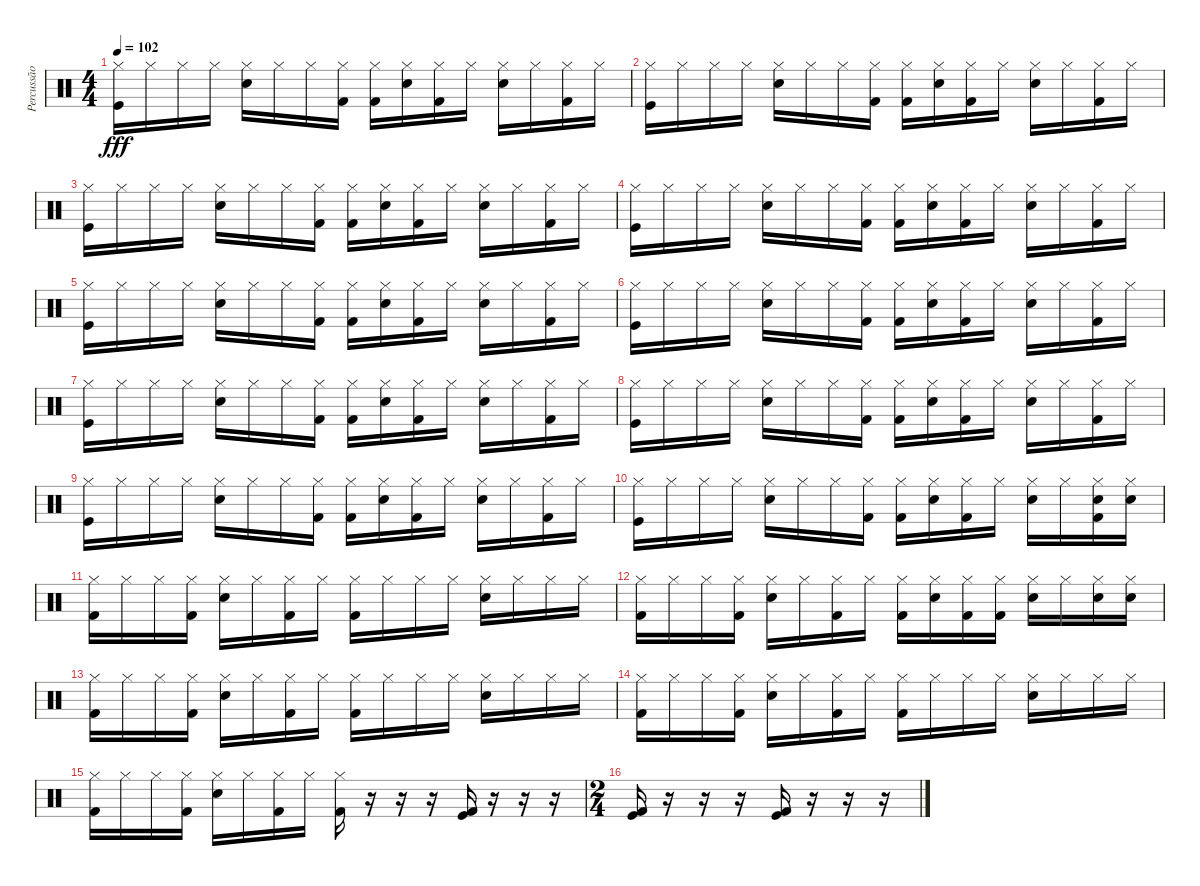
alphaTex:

\track ("Percussão" "Percussão") {instrument percussion}
\staff {score}
\articulation defaults
\ts (4 4)
\tempo 102
\clef neutral
\ks c
("Hi-Hat (closed)" "Kick (hit)").16{dy fff} "Hi-Hat (closed)".16 "Hi-Hat (closed)".16 "Hi-Hat (closed)".16 ("Hi-Hat (closed)" "Snare (hit) 2").16 "Hi-Hat (closed)".16 "Hi-Hat (closed)".16 ("Hi-Hat (closed)" "Kick (hit) 2").16 ("Hi-Hat (closed)" "Kick (hit) 2").16 ("Hi-Hat (closed)" "Snare (hit) 2").16 ("Hi-Hat (closed)" "Kick (hit) 2").16 "Hi-Hat (closed)".16 ("Hi-Hat (closed)" "Snare (hit) 2").16 "Hi-Hat (closed)".16 ("Hi-Hat (closed)" "Kick (hit) 2").16 "Hi-Hat (closed)".16 |
("Hi-Hat (closed)" "Kick (hit)").16 "Hi-Hat (closed)".16 "Hi-Hat (closed)".16 "Hi-Hat (closed)".16 ("Hi-Hat (closed)" "Snare (hit) 2").16 "Hi-Hat (closed)".16 "Hi-Hat (closed)".16 ("Hi-Hat (closed)" "Kick (hit) 2").16 ("Hi-Hat (closed)" "Kick (hit) 2").16 ("Hi-Hat (closed)" "Snare (hit) 2").16 ("Hi-Hat (closed)" "Kick (hit) 2").16 "Hi-Hat (closed)".16 ("Hi-Hat (closed)" "Snare (hit) 2").16 "Hi-Hat (closed)".16 ("Hi-Hat (closed)" "Kick (hit) 2").16 "Hi-Hat (closed)".16 |
("Hi-Hat (closed)" "Kick (hit)").16 "Hi-Hat (closed)".16 "Hi-Hat (closed)".16 "Hi-Hat (closed)".16 ("Hi-Hat (closed)" "Snare (hit) 2").16 "Hi-Hat (closed)".16 "Hi-Hat (closed)".16 ("Hi-Hat (closed)" "Kick (hit) 2").16 ("Hi-Hat (closed)" "Kick (hit) 2").16 ("Hi-Hat (closed)" "Snare (hit) 2").16 ("Hi-Hat (closed)" "Kick (hit) 2").16 "Hi-Hat (closed)".16 ("Hi-Hat (closed)" "Snare (hit) 2").16 "Hi-Hat (closed)".16 ("Hi-Hat (closed)" "Kick (hit) 2").16 "Hi-Hat (closed)".16 |
("Hi-Hat (closed)" "Kick (hit)").16 "Hi-Hat (closed)".16 "Hi-Hat (closed)".16 "Hi-Hat (closed)".16 ("Hi-Hat (closed)" "Snare (hit) 2").16 "Hi-Hat (closed)".16 "Hi-Hat (closed)".16 ("Hi-Hat (closed)" "Kick (hit) 2").16 ("Hi-Hat (closed)" "Kick (hit) 2").16 ("Hi-Hat (closed)" "Snare (hit) 2").16 ("Hi-Hat (closed)" "Kick (hit) 2").16 "Hi-Hat (closed)".16 ("Hi-Hat (closed)" "Snare (hit) 2").16 "Hi-Hat (closed)".16 ("Hi-Hat (closed)" "Kick (hit) 2").16 "Hi-Hat (closed)".16 |
("Hi-Hat (closed)" "Kick (hit)").16 "Hi-Hat (closed)".16 "Hi-Hat (closed)".16 "Hi-Hat (closed)".16 ("Hi-Hat (closed)" "Snare (hit) 2").16 "Hi-Hat (closed)".16 "Hi-Hat (closed)".16 ("Hi-Hat (closed)" "Kick (hit) 2").16 ("Hi-Hat (closed)" "Kick (hit) 2").16 ("Hi-Hat (closed)" "Snare (hit) 2").16 ("Hi-Hat (closed)" "Kick (hit) 2").16 "Hi-Hat (closed)".16 ("Hi-Hat (closed)" "Snare (hit) 2").16 "Hi-Hat (closed)".16 ("Hi-Hat (closed)" "Kick (hit) 2").16 "Hi-Hat (closed)".16 |
("Hi-Hat (closed)" "Kick (hit)").16 "Hi-Hat (closed)".16 "Hi-Hat (closed)".16 "Hi-Hat (closed)".16 ("Hi-Hat (closed)" "Snare (hit) 2").16 "Hi-Hat (closed)".16 "Hi-Hat (closed)".16 ("Hi-Hat (closed)" "Kick (hit) 2").16 ("Hi-Hat (closed)" "Kick (hit) 2").16 ("Hi-Hat (closed)" "Snare (hit) 2").16 ("Hi-Hat (closed)" "Kick (hit) 2").16 "Hi-Hat (closed)".16 ("Hi-Hat (closed)" "Snare (hit) 2").16 "Hi-Hat (closed)".16 ("Hi-Hat (closed)" "Kick (hit) 2").16 "Hi-Hat (closed)".16 |
("Hi-Hat (closed)" "Kick (hit)").16 "Hi-Hat (closed)".16 "Hi-Hat (closed)".16 "Hi-Hat (closed)".16 ("Hi-Hat (closed)" "Snare (hit) 2").16 "Hi-Hat (closed)".16 "Hi-Hat (closed)".16 ("Hi-Hat (closed)" "Kick (hit) 2").16 ("Hi-Hat (closed)" "Kick (hit) 2").16 ("Hi-Hat (closed)" "Snare (hit) 2").16 ("Hi-Hat (closed)" "Kick (hit) 2").16 "Hi-Hat (closed)".16 ("Hi-Hat (closed)" "Snare (hit) 2").16 "Hi-Hat (closed)".16 ("Hi-Hat (closed)" "Kick (hit) 2").16 "Hi-Hat (closed)".16 |
("Hi-Hat (closed)" "Kick (hit)").16 "Hi-Hat (closed)".16 "Hi-Hat (closed)".16 "Hi-Hat (closed)".16 ("Hi-Hat (closed)" "Snare (hit) 2").16 "Hi-Hat (closed)".16 "Hi-Hat (closed)".16 ("Hi-Hat (closed)" "Kick (hit) 2").16 ("Hi-Hat (closed)" "Kick (hit) 2").16 ("Hi-Hat (closed)" "Snare (hit) 2").16 ("Hi-Hat (closed)" "Kick (hit) 2").16 "Hi-Hat (closed)".16 ("Hi-Hat (closed)" "Snare (hit) 2").16 "Hi-Hat (closed)".16 ("Hi-Hat (closed)" "Kick (hit) 2").16 "Hi-Hat (closed)".16 |
("Hi-Hat (closed)" "Kick (hit)").16 "Hi-Hat (closed)".16 "Hi-Hat (closed)".16 "Hi-Hat (closed)".16 ("Hi-Hat (closed)" "Snare (hit) 2").16 "Hi-Hat (closed)".16 "Hi-Hat (closed)".16 ("Hi-Hat (closed)" "Kick (hit) 2").16 ("Hi-Hat (closed)" "Kick (hit) 2").16 ("Hi-Hat (closed)" "Snare (hit) 2").16 ("Hi-Hat (closed)" "Kick (hit) 2").16 "Hi-Hat (closed)".16 ("Hi-Hat (closed)" "Snare (hit) 2").16 "Hi-Hat (closed)".16 ("Hi-Hat (closed)" "Kick (hit) 2").16 "Hi-Hat (closed)".16 |
("Hi-Hat (closed)" "Kick (hit)").16 "Hi-Hat (closed)".16 "Hi-Hat (closed)".16 "Hi-Hat (closed)".16 ("Hi-Hat (closed)" "Snare (hit) 2").16 "Hi-Hat (closed)".16 "Hi-Hat (closed)".16 ("Hi-Hat (closed)" "Kick (hit) 2").16 ("Hi-Hat (closed)" "Kick (hit) 2").16 ("Hi-Hat (closed)" "Snare (hit) 2").16 ("Hi-Hat (closed)" "Kick (hit) 2").16 "Hi-Hat (closed)".16 ("Hi-Hat (closed)" "Snare (hit) 2").16 "Hi-Hat (closed)".16 ("Hi-Hat (closed)" "Kick (hit) 2" "Snare (hit) 2").16 ("Hi-Hat (closed)" "Snare (hit) 2").16 |
("Hi-Hat (closed)" "Kick (hit) 2").16 "Hi-Hat (closed)".16 "Hi-Hat (closed)".16 ("Hi-Hat (closed)" "Kick (hit) 2").16 ("Hi-Hat (closed)" "Snare (hit) 2").16 "Hi-Hat (closed)".16 ("Hi-Hat (closed)" "Kick (hit) 2").16 "Hi-Hat (closed)".16 ("Hi-Hat (closed)" "Kick (hit) 2").16 "Hi-Hat (closed)".16 "Hi-Hat (closed)".16 "Hi-Hat (closed)".16 ("Hi-Hat (closed)" "Snare (hit) 2").16 "Hi-Hat (closed)".16 "Hi-Hat (closed)".16 "Hi-Hat (closed)".16 |
("Hi-Hat (closed)" "Kick (hit) 2").16 "Hi-Hat (closed)".16 "Hi-Hat (closed)".16 ("Hi-Hat (closed)" "Kick (hit) 2").16 ("Hi-Hat (closed)" "Snare (hit) 2").16 "Hi-Hat (closed)".16 ("Hi-Hat (closed)" "Kick (hit) 2").16 "Hi-Hat (closed)".16 ("Hi-Hat (closed)" "Kick (hit) 2").16 ("Hi-Hat (closed)" "Snare (hit) 2").16 ("Hi-Hat (closed)" "Kick (hit) 2").16 ("Hi-Hat (closed)" "Kick (hit) 2").16 ("Hi-Hat (closed)" "Snare (hit) 2").16 "Hi-Hat (closed)".16 ("Hi-Hat (closed)" "Snare (hit) 2").16 ("Hi-Hat (closed)" "Snare (hit) 2").16 |
("Hi-Hat (closed)" "Kick (hit) 2").16 "Hi-Hat (closed)".16 "Hi-Hat (closed)".16 ("Hi-Hat (closed)" "Kick (hit) 2").16 ("Hi-Hat (closed)" "Snare (hit) 2").16 "Hi-Hat (closed)".16 ("Hi-Hat (closed)" "Kick (hit) 2").16 "Hi-Hat (closed)".16 ("Hi-Hat (closed)" "Kick (hit) 2").16 "Hi-Hat (closed)".16 "Hi-Hat (closed)".16 "Hi-Hat (closed)".16 ("Hi-Hat (closed)" "Snare (hit) 2").16 "Hi-Hat (closed)".16 "Hi-Hat (closed)".16 "Hi-Hat (closed)".16 |
("Hi-Hat (closed)" "Kick (hit) 2").16 "Hi-Hat (closed)".16 "Hi-Hat (closed)".16 ("Hi-Hat (closed)" "Kick (hit) 2").16 ("Hi-Hat (closed)" "Snare (hit) 2").16 "Hi-Hat (closed)".16 ("Hi-Hat (closed)" "Kick (hit) 2").16 "Hi-Hat (closed)".16 ("Hi-Hat (closed)" "Kick (hit) 2").16 "Hi-Hat (closed)".16 "Hi-Hat (closed)".16 "Hi-Hat (closed)".16 ("Hi-Hat (closed)" "Snare (hit) 2").16 "Hi-Hat (closed)".16 "Hi-Hat (closed)".16 "Hi-Hat (closed)".16 |
("Hi-Hat (closed)" "Kick (hit) 2").16 "Hi-Hat (closed)".16 "Hi-Hat (closed)".16 ("Hi-Hat (closed)" "Kick (hit) 2").16 ("Hi-Hat (closed)" "Snare (hit) 2").16 "Hi-Hat (closed)".16 ("Hi-Hat (closed)" "Kick (hit) 2").16 "Hi-Hat (closed)".16 ("Hi-Hat (closed)" "Kick (hit) 2").16 r.16 r.16 r.16 ("Kick (hit)" "Kick (hit) 2").16 r.16 r.16 r.16 |
\ts (2 4)
("Kick (hit)" "Kick (hit) 2").16 r.16 r.16 r.16 ("Kick (hit)" "Kick (hit) 2").16 r.16 r.16 r.16
